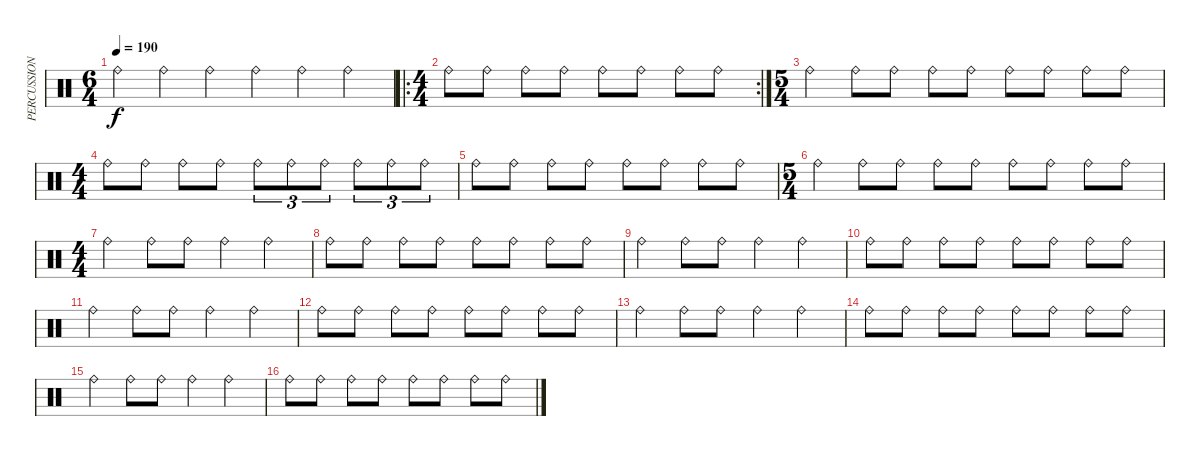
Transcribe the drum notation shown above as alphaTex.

\track ("PERCUSSION" "PERCUSSION") {instrument percussion}
\staff {score}
\articulation defaults
\ts (6 4)
\tempo 190
\clef neutral
\ks c "Ride (bell)".4{dy f} "Ride (bell)".4 "Ride (bell)".4 "Ride (bell)".4 "Ride (bell)".4 "Ride (bell)".4
|
\ro
\rc 2
\ts (4 4)
"Ride (bell)".8 "Ride (bell)".8 "Ride (bell)".8 "Ride (bell)".8 "Ride (bell)".8 "Ride (bell)".8 "Ride (bell)".8 "Ride (bell)".8 |
\ts (5 4)
"Ride (bell)".4 "Ride (bell)".8 "Ride (bell)".8 "Ride (bell)".8 "Ride (bell)".8 "Ride (bell)".8 "Ride (bell)".8 "Ride (bell)".8 "Ride (bell)".8 |
\ts (4 4)
"Ride (bell)".8 "Ride (bell)".8 "Ride (bell)".8 "Ride (bell)".8 "Ride (bell)".8{tu (3 2)} "Ride (bell)".8{tu (3 2)} "Ride (bell)".8{tu (3 2)} "Ride (bell)".8{tu (3 2)} "Ride (bell)".8{tu (3 2)} "Ride (bell)".8{tu (3 2)} |
"Ride (bell)".8 "Ride (bell)".8 "Ride (bell)".8 "Ride (bell)".8 "Ride (bell)".8 "Ride (bell)".8 "Ride (bell)".8 "Ride (bell)".8 |
\ts (5 4)
"Ride (bell)".4 "Ride (bell)".8 "Ride (bell)".8 "Ride (bell)".8 "Ride (bell)".8 "Ride (bell)".8 "Ride (bell)".8 "Ride (bell)".8 "Ride (bell)".8 |
\ts (4 4)
"Ride (bell)".4 "Ride (bell)".8 "Ride (bell)".8 "Ride (bell)".4 "Ride (bell)".4 |
"Ride (bell)".8 "Ride (bell)".8 "Ride (bell)".8 "Ride (bell)".8 "Ride (bell)".8 "Ride (bell)".8 "Ride (bell)".8 "Ride (bell)".8 |
"Ride (bell)".4 "Ride (bell)".8 "Ride (bell)".8 "Ride (bell)".4 "Ride (bell)".4 |
"Ride (bell)".8 "Ride (bell)".8 "Ride (bell)".8 "Ride (bell)".8 "Ride (bell)".8 "Ride (bell)".8 "Ride (bell)".8 "Ride (bell)".8 |
"Ride (bell)".4 "Ride (bell)".8 "Ride (bell)".8 "Ride (bell)".4 "Ride (bell)".4 |
"Ride (bell)".8 "Ride (bell)".8 "Ride (bell)".8 "Ride (bell)".8 "Ride (bell)".8 "Ride (bell)".8 "Ride (bell)".8 "Ride (bell)".8 |
"Ride (bell)".4 "Ride (bell)".8 "Ride (bell)".8 "Ride (bell)".4 "Ride (bell)".4 |
"Ride (bell)".8 "Ride (bell)".8 "Ride (bell)".8 "Ride (bell)".8 "Ride (bell)".8 "Ride (bell)".8 "Ride (bell)".8 "Ride (bell)".8 |
"Ride (bell)".4 "Ride (bell)".8 "Ride (bell)".8 "Ride (bell)".4 "Ride (bell)".4 |
"Ride (bell)".8 "Ride (bell)".8 "Ride (bell)".8 "Ride (bell)".8 "Ride (bell)".8 "Ride (bell)".8 "Ride (bell)".8 "Ride (bell)".8
